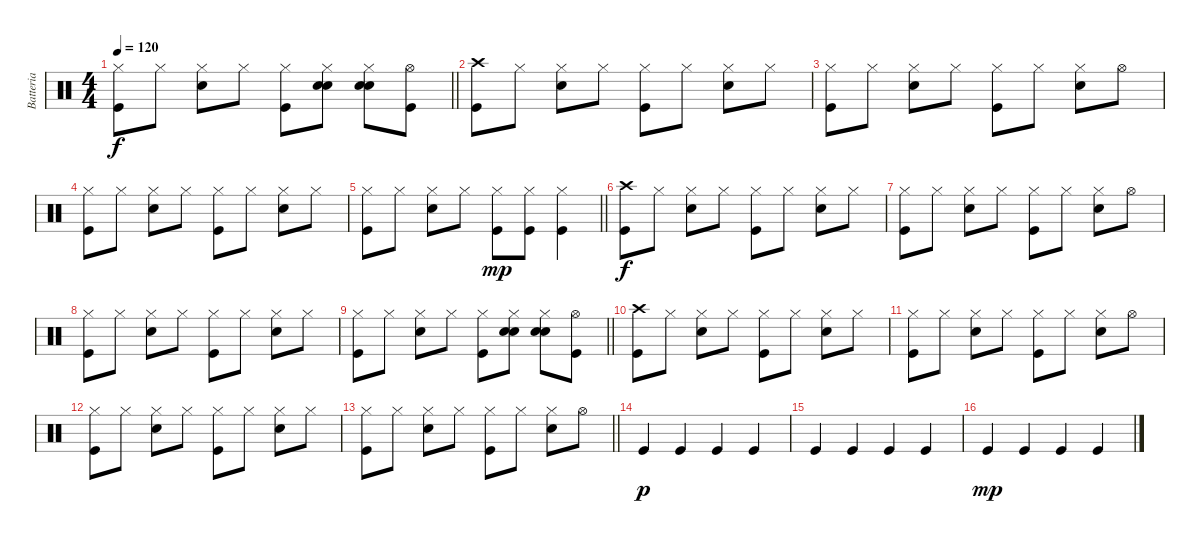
\track ("Batteria" "Batteria") {instrument percussion}
\staff {score}
\articulation defaults
\ts (4 4)
\tempo 120
\clef neutral
\barLineRight lightlight
\ks c
("Kick (hit)" "Hi-Hat (closed)").8{dy f} "Hi-Hat (closed)".8 ("Snare (hit) 2" "Hi-Hat (closed)").8 "Hi-Hat (closed)".8 ("Kick (hit)" "Hi-Hat (closed)").8 ("Hi-Hat (closed)" "Snare (hit) 2" "Hand Clap (hit)").8 ("Snare (hit) 2" "Hi-Hat (closed)" "Hand Clap (hit)").8 ("Hi-Hat (open)" "Kick (hit)").8 |
("Kick (hit)" "Crash high (hit)").8 "Hi-Hat (closed)".8 ("Snare (hit) 2" "Hi-Hat (closed)").8 "Hi-Hat (closed)".8 ("Kick (hit)" "Hi-Hat (closed)").8 "Hi-Hat (closed)".8 ("Snare (hit) 2" "Hi-Hat (closed)").8 "Hi-Hat (closed)".8 |
("Kick (hit)" "Hi-Hat (closed)").8 "Hi-Hat (closed)".8 ("Snare (hit) 2" "Hi-Hat (closed)").8 "Hi-Hat (closed)".8 ("Kick (hit)" "Hi-Hat (closed)").8 "Hi-Hat (closed)".8 ("Snare (hit) 2" "Hi-Hat (closed)").8 "Hi-Hat (open)".8 |
("Kick (hit)" "Hi-Hat (closed)").8 "Hi-Hat (closed)".8 ("Snare (hit) 2" "Hi-Hat (closed)").8 "Hi-Hat (closed)".8 ("Kick (hit)" "Hi-Hat (closed)").8 "Hi-Hat (closed)".8 ("Snare (hit) 2" "Hi-Hat (closed)").8 "Hi-Hat (closed)".8 |
\barLineRight lightlight
("Kick (hit)" "Hi-Hat (closed)").8 "Hi-Hat (closed)".8 ("Snare (hit) 2" "Hi-Hat (closed)").8 "Hi-Hat (closed)".8 ("Kick (hit)" "Hi-Hat (closed)").8{dy mp} ("Kick (hit)" "Hi-Hat (closed)").8 ("Kick (hit)" "Hi-Hat (closed)").4 |
("Kick (hit)" "Crash high (hit)").8{dy f} "Hi-Hat (closed)".8 ("Snare (hit) 2" "Hi-Hat (closed)").8 "Hi-Hat (closed)".8 ("Kick (hit)" "Hi-Hat (closed)").8 "Hi-Hat (closed)".8 ("Snare (hit) 2" "Hi-Hat (closed)").8 "Hi-Hat (closed)".8 |
("Kick (hit)" "Hi-Hat (closed)").8 "Hi-Hat (closed)".8 ("Snare (hit) 2" "Hi-Hat (closed)").8 "Hi-Hat (closed)".8 ("Kick (hit)" "Hi-Hat (closed)").8 "Hi-Hat (closed)".8 ("Snare (hit) 2" "Hi-Hat (closed)").8 "Hi-Hat (open)".8 |
("Kick (hit)" "Hi-Hat (closed)").8 "Hi-Hat (closed)".8 ("Snare (hit) 2" "Hi-Hat (closed)").8 "Hi-Hat (closed)".8 ("Kick (hit)" "Hi-Hat (closed)").8 "Hi-Hat (closed)".8 ("Snare (hit) 2" "Hi-Hat (closed)").8 "Hi-Hat (closed)".8 |
\barLineRight lightlight
("Kick (hit)" "Hi-Hat (closed)").8 "Hi-Hat (closed)".8 ("Snare (hit) 2" "Hi-Hat (closed)").8 "Hi-Hat (closed)".8 ("Kick (hit)" "Hi-Hat (closed)").8 ("Hi-Hat (closed)" "Snare (hit) 2" "Hand Clap (hit)").8 ("Snare (hit) 2" "Hi-Hat (closed)" "Hand Clap (hit)").8 ("Hi-Hat (open)" "Kick (hit)").8 |
("Kick (hit)" "Crash high (hit)").8 "Hi-Hat (closed)".8 ("Snare (hit) 2" "Hi-Hat (closed)").8 "Hi-Hat (closed)".8 ("Kick (hit)" "Hi-Hat (closed)").8 "Hi-Hat (closed)".8 ("Snare (hit) 2" "Hi-Hat (closed)").8 "Hi-Hat (closed)".8 |
("Kick (hit)" "Hi-Hat (closed)").8 "Hi-Hat (closed)".8 ("Snare (hit) 2" "Hi-Hat (closed)").8 "Hi-Hat (closed)".8 ("Kick (hit)" "Hi-Hat (closed)").8 "Hi-Hat (closed)".8 ("Snare (hit) 2" "Hi-Hat (closed)").8 "Hi-Hat (open)".8 |
("Kick (hit)" "Hi-Hat (closed)").8 "Hi-Hat (closed)".8 ("Snare (hit) 2" "Hi-Hat (closed)").8 "Hi-Hat (closed)".8 ("Kick (hit)" "Hi-Hat (closed)").8 "Hi-Hat (closed)".8 ("Snare (hit) 2" "Hi-Hat (closed)").8 "Hi-Hat (closed)".8 |
\barLineRight lightlight
("Kick (hit)" "Hi-Hat (closed)").8 "Hi-Hat (closed)".8 ("Snare (hit) 2" "Hi-Hat (closed)").8 "Hi-Hat (closed)".8 ("Kick (hit)" "Hi-Hat (closed)").8 "Hi-Hat (closed)".8 ("Snare (hit) 2" "Hi-Hat (closed)").8 "Hi-Hat (open)".8 |
"Kick (hit)".4{dy p} "Kick (hit)".4 "Kick (hit)".4 "Kick (hit)".4 |
"Kick (hit)".4 "Kick (hit)".4 "Kick (hit)".4 "Kick (hit)".4 |
"Kick (hit)".4{dy mp} "Kick (hit)".4 "Kick (hit)".4 "Kick (hit)".4
